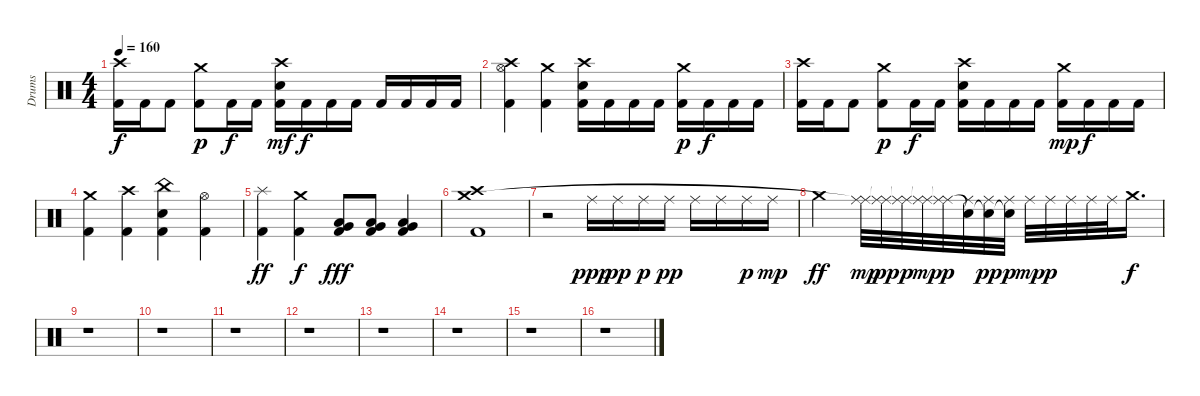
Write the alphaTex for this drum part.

\track ("Drums" "Drums") {instrument percussion}
\staff {score}
\articulation defaults
\ts (4 4)
\tempo 160
\clef neutral
\ks c
("Crash high (hit)" "Kick (hit) 2").16{dy f} "Kick (hit) 2".16 "Kick (hit) 2".8 ("Crash medium (hit)" "Kick (hit) 2").8{dy p} "Kick (hit) 2".16{dy f} "Kick (hit) 2".16 ("Crash high (hit)" "Snare (hit) 2" "Kick (hit) 2").16{dy mf} "Kick (hit) 2".16{dy f} "Kick (hit) 2".16 "Kick (hit) 2".16 "Kick (hit) 2".16 "Kick (hit) 2".16 "Kick (hit) 2".16 "Kick (hit) 2".16 |
("Crash high (hit)" "Hi-Hat (open)" "Kick (hit) 2").4 ("Crash medium (hit)" "Kick (hit) 2").4 ("Crash high (hit)" "Snare (hit) 2" "Kick (hit) 2").16 "Kick (hit) 2".16 "Kick (hit) 2".16 "Kick (hit) 2".16 ("Crash medium (hit)" "Kick (hit) 2").16{dy p} "Kick (hit) 2".16{dy f} "Kick (hit) 2".16 "Kick (hit) 2".16 |
("Crash high (hit)" "Kick (hit) 2").16 "Kick (hit) 2".16 "Kick (hit) 2".8 ("Crash medium (hit)" "Kick (hit) 2").8{dy p} "Kick (hit) 2".16{dy f} "Kick (hit) 2".16 ("Crash high (hit)" "Snare (hit) 2" "Kick (hit) 2").16 "Kick (hit) 2".16 "Kick (hit) 2".16 "Kick (hit) 2".16 ("Crash medium (hit)" "Kick (hit) 2").16{dy mp} "Kick (hit) 2".16{dy f} "Kick (hit) 2".16 "Kick (hit) 2".16 |
("Crash medium (hit)" "Kick (hit) 2").4 ("Crash high (hit)" "Kick (hit) 2").4 ("China (hit)" "Snare (hit) 2" "Kick (hit) 2").4 ("Hi-Hat (open)" "Kick (hit) 2").4 |
("Splash (hit)" "Kick (hit) 2").4{dy ff} ("Crash medium (hit)" "Kick (hit) 2").4{dy f} ("Low Floor Tom (hit)" "Very Low Tom (hit)" "Kick (hit) 2").8{dy fff} ("Low Floor Tom (hit)" "Very Low Tom (hit)" "Kick (hit) 2").8 ("Low Floor Tom (hit)" "Very Low Tom (hit)" "Kick (hit) 2").4 |
("Crash high (hit)" "Crash medium (hit)" "Kick (hit) 2").1 |
r.2 "Ride (middle)".16{dy ppp} "Ride (middle)".16{dy pp} "Ride (middle)".16{dy p} "Ride (middle)".16{dy pp} "Ride (middle)".16 "Ride (middle)".16 "Ride (middle)".16{dy p} "Ride (middle)".16{dy mp} |
"Crash medium (hit)".2{dy ff} ("Ride (middle)" "Ride (middle)"{t}).32{dy mp} ("Ride (middle)" "Ride (middle)"{t}).32{dy pp} ("Ride (middle)" "Ride (middle)"{t}).32{dy p} ("Ride (middle)" "Ride (middle)"{t}).32{dy mp} ("Ride (middle)" "Ride (middle)"{t}).32{dy p} ("Ride (middle)" "Snare (hit)"{t}).32 ("Ride (middle)" "Snare (hit)"{t}).32{dy pp} ("Ride (middle)" "Snare (hit)"{t}).32{dy p} "Ride (middle)".32{dy mp} "Ride (middle)".32{dy p} "Ride (middle)".32 "Ride (middle)".32 "Ride (middle)".32 "Crash medium (hit)".16{d dy f} |
r.1 |
r.1 |
r.1 |
r.1 |
r.1 |
r.1 |
r.1 |
r.1
